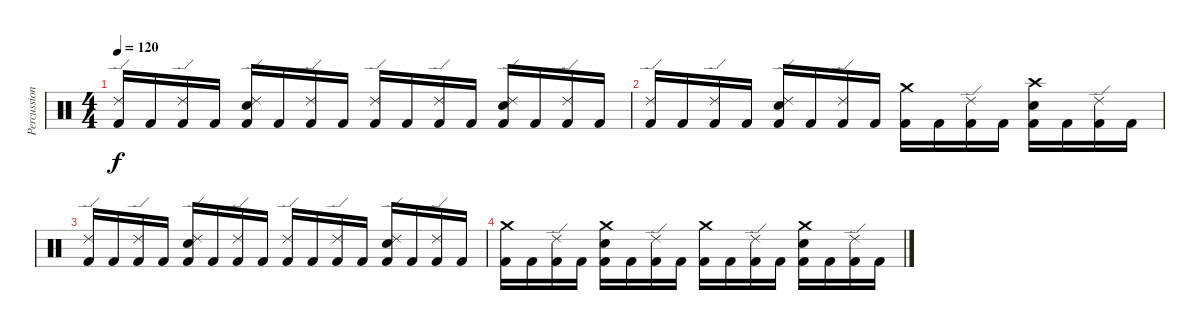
\track ("Percussions" "Percussion") {instrument percussion}
\staff {score}
\articulation defaults
\ts (4 4)
\tempo 120
\clef neutral
\ks c
("Kick (hit) 2" "Ride (edge) 2").16{dy f} "Kick (hit) 2".16 ("Kick (hit) 2" "Ride (edge) 2").16 "Kick (hit) 2".16 ("Kick (hit) 2" "Electric Snare (hit)" "Ride (edge) 2").16 "Kick (hit) 2".16 ("Kick (hit) 2" "Ride (edge) 2").16 "Kick (hit) 2".16 ("Kick (hit) 2" "Ride (edge) 2").16 "Kick (hit) 2".16 ("Kick (hit) 2" "Ride (edge) 2").16 "Kick (hit) 2".16 ("Kick (hit) 2" "Electric Snare (hit)" "Ride (edge) 2").16 "Kick (hit) 2".16 ("Kick (hit) 2" "Ride (edge) 2").16 "Kick (hit) 2".16 |
("Kick (hit) 2" "Ride (edge) 2").16 "Kick (hit) 2".16 ("Kick (hit) 2" "Ride (edge) 2").16 "Kick (hit) 2".16 ("Kick (hit) 2" "Electric Snare (hit)" "Ride (edge) 2").16 "Kick (hit) 2".16 ("Kick (hit) 2" "Ride (edge) 2").16 "Kick (hit) 2".16 ("Kick (hit) 2" "Crash medium (hit)").16 "Kick (hit) 2".16 ("Kick (hit) 2" "Ride (edge) 2").16 "Kick (hit) 2".16 ("Kick (hit) 2" "Electric Snare (hit)" "Crash high (hit)").16 "Kick (hit) 2".16 ("Kick (hit) 2" "Ride (edge) 2").16 "Kick (hit) 2".16 |
("Kick (hit) 2" "Ride (edge) 2").16 "Kick (hit) 2".16 ("Kick (hit) 2" "Ride (edge) 2").16 "Kick (hit) 2".16 ("Kick (hit) 2" "Electric Snare (hit)" "Ride (edge) 2").16 "Kick (hit) 2".16 ("Kick (hit) 2" "Ride (edge) 2").16 "Kick (hit) 2".16 ("Kick (hit) 2" "Ride (edge) 2").16 "Kick (hit) 2".16 ("Kick (hit) 2" "Ride (edge) 2").16 "Kick (hit) 2".16 ("Kick (hit) 2" "Electric Snare (hit)" "Ride (edge) 2").16 "Kick (hit) 2".16 ("Kick (hit) 2" "Ride (edge) 2").16 "Kick (hit) 2".16 |
("Kick (hit) 2" "Crash medium (hit)").16 "Kick (hit) 2".16 ("Kick (hit) 2" "Ride (edge) 2").16 "Kick (hit) 2".16 ("Kick (hit) 2" "Electric Snare (hit)" "Crash medium (hit)").16 "Kick (hit) 2".16 ("Kick (hit) 2" "Ride (edge) 2").16 "Kick (hit) 2".16 ("Kick (hit) 2" "Crash medium (hit)").16 "Kick (hit) 2".16 ("Kick (hit) 2" "Ride (edge) 2").16 "Kick (hit) 2".16 ("Kick (hit) 2" "Electric Snare (hit)" "Crash medium (hit)").16 "Kick (hit) 2".16 ("Kick (hit) 2" "Ride (edge) 2").16 "Kick (hit) 2".16
